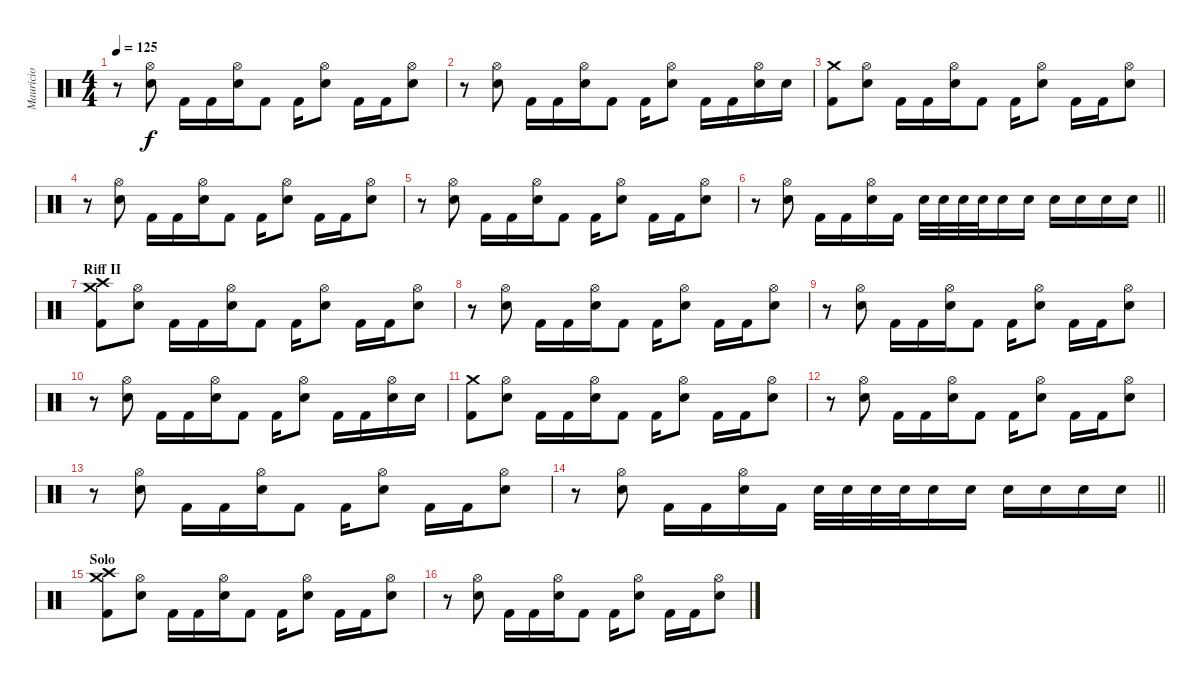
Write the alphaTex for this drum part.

\track ("Mauricio" "Mauricio") {instrument percussion}
\staff {score}
\articulation defaults
\ts (4 4)
\tempo 125
\clef neutral
\ks c
r.8{dy f} ("Hi-Hat (open)" "Electric Snare (hit)").8 "Kick (hit) 2".16 "Kick (hit) 2".16 ("Hi-Hat (open)" "Electric Snare (hit)").16 "Kick (hit) 2".8 "Kick (hit) 2".16 ("Hi-Hat (open)" "Electric Snare (hit)").8 "Kick (hit) 2".16 "Kick (hit) 2".16 ("Hi-Hat (open)" "Electric Snare (hit)").8 |
r.8 ("Hi-Hat (open)" "Electric Snare (hit)").8 "Kick (hit) 2".16 "Kick (hit) 2".16 ("Hi-Hat (open)" "Electric Snare (hit)").16 "Kick (hit) 2".8 "Kick (hit) 2".16 ("Hi-Hat (open)" "Electric Snare (hit)").8 "Kick (hit) 2".16 "Kick (hit) 2".16 ("Hi-Hat (open)" "Electric Snare (hit)").16 "Electric Snare (hit)".16 |
("Crash medium (hit)" "Kick (hit) 2").8 ("Hi-Hat (open)" "Electric Snare (hit)").8 "Kick (hit) 2".16 "Kick (hit) 2".16 ("Hi-Hat (open)" "Electric Snare (hit)").16 "Kick (hit) 2".8 "Kick (hit) 2".16 ("Hi-Hat (open)" "Electric Snare (hit)").8 "Kick (hit) 2".16 "Kick (hit) 2".16 ("Hi-Hat (open)" "Electric Snare (hit)").8 |
r.8 ("Hi-Hat (open)" "Electric Snare (hit)").8 "Kick (hit) 2".16 "Kick (hit) 2".16 ("Hi-Hat (open)" "Electric Snare (hit)").16 "Kick (hit) 2".8 "Kick (hit) 2".16 ("Hi-Hat (open)" "Electric Snare (hit)").8 "Kick (hit) 2".16 "Kick (hit) 2".16 ("Hi-Hat (open)" "Electric Snare (hit)").8 |
r.8 ("Hi-Hat (open)" "Electric Snare (hit)").8 "Kick (hit) 2".16 "Kick (hit) 2".16 ("Hi-Hat (open)" "Electric Snare (hit)").16 "Kick (hit) 2".8 "Kick (hit) 2".16 ("Hi-Hat (open)" "Electric Snare (hit)").8 "Kick (hit) 2".16 "Kick (hit) 2".16 ("Hi-Hat (open)" "Electric Snare (hit)").8 |
\barLineRight lightlight
r.8 ("Hi-Hat (open)" "Electric Snare (hit)").8 "Kick (hit) 2".16 "Kick (hit) 2".16 ("Hi-Hat (open)" "Electric Snare (hit)").16 "Kick (hit) 2".16 "Electric Snare (hit)".32 "Electric Snare (hit)".32 "Electric Snare (hit)".32 "Electric Snare (hit)".32 "Electric Snare (hit)".16 "Electric Snare (hit)".16 "Electric Snare (hit)".16 "Electric Snare (hit)".16 "Electric Snare (hit)".16 "Electric Snare (hit)".16 |
\section ("" "Riff II")
("Crash medium (hit)" "Crash high (hit)" "Kick (hit) 2").8 ("Hi-Hat (open)" "Electric Snare (hit)").8 "Kick (hit) 2".16 "Kick (hit) 2".16 ("Hi-Hat (open)" "Electric Snare (hit)").16 "Kick (hit) 2".8 "Kick (hit) 2".16 ("Hi-Hat (open)" "Electric Snare (hit)").8 "Kick (hit) 2".16 "Kick (hit) 2".16 ("Hi-Hat (open)" "Electric Snare (hit)").8 |
r.8 ("Hi-Hat (open)" "Electric Snare (hit)").8 "Kick (hit) 2".16 "Kick (hit) 2".16 ("Hi-Hat (open)" "Electric Snare (hit)").16 "Kick (hit) 2".8 "Kick (hit) 2".16 ("Hi-Hat (open)" "Electric Snare (hit)").8 "Kick (hit) 2".16 "Kick (hit) 2".16 ("Hi-Hat (open)" "Electric Snare (hit)").8 |
r.8 ("Hi-Hat (open)" "Electric Snare (hit)").8 "Kick (hit) 2".16 "Kick (hit) 2".16 ("Hi-Hat (open)" "Electric Snare (hit)").16 "Kick (hit) 2".8 "Kick (hit) 2".16 ("Hi-Hat (open)" "Electric Snare (hit)").8 "Kick (hit) 2".16 "Kick (hit) 2".16 ("Hi-Hat (open)" "Electric Snare (hit)").8 |
r.8 ("Hi-Hat (open)" "Electric Snare (hit)").8 "Kick (hit) 2".16 "Kick (hit) 2".16 ("Hi-Hat (open)" "Electric Snare (hit)").16 "Kick (hit) 2".8 "Kick (hit) 2".16 ("Hi-Hat (open)" "Electric Snare (hit)").8 "Kick (hit) 2".16 "Kick (hit) 2".16 ("Hi-Hat (open)" "Electric Snare (hit)").16 "Electric Snare (hit)".16 |
("Crash medium (hit)" "Kick (hit) 2").8 ("Hi-Hat (open)" "Electric Snare (hit)").8 "Kick (hit) 2".16 "Kick (hit) 2".16 ("Hi-Hat (open)" "Electric Snare (hit)").16 "Kick (hit) 2".8 "Kick (hit) 2".16 ("Hi-Hat (open)" "Electric Snare (hit)").8 "Kick (hit) 2".16 "Kick (hit) 2".16 ("Hi-Hat (open)" "Electric Snare (hit)").8 |
r.8 ("Hi-Hat (open)" "Electric Snare (hit)").8 "Kick (hit) 2".16 "Kick (hit) 2".16 ("Hi-Hat (open)" "Electric Snare (hit)").16 "Kick (hit) 2".8 "Kick (hit) 2".16 ("Hi-Hat (open)" "Electric Snare (hit)").8 "Kick (hit) 2".16 "Kick (hit) 2".16 ("Hi-Hat (open)" "Electric Snare (hit)").8 |
r.8 ("Hi-Hat (open)" "Electric Snare (hit)").8 "Kick (hit) 2".16 "Kick (hit) 2".16 ("Hi-Hat (open)" "Electric Snare (hit)").16 "Kick (hit) 2".8 "Kick (hit) 2".16 ("Hi-Hat (open)" "Electric Snare (hit)").8 "Kick (hit) 2".16 "Kick (hit) 2".16 ("Hi-Hat (open)" "Electric Snare (hit)").8 |
\barLineRight lightlight
r.8 ("Hi-Hat (open)" "Electric Snare (hit)").8 "Kick (hit) 2".16 "Kick (hit) 2".16 ("Hi-Hat (open)" "Electric Snare (hit)").16 "Kick (hit) 2".16 "Electric Snare (hit)".32 "Electric Snare (hit)".32 "Electric Snare (hit)".32 "Electric Snare (hit)".32 "Electric Snare (hit)".16 "Electric Snare (hit)".16 "Electric Snare (hit)".16 "Electric Snare (hit)".16 "Electric Snare (hit)".16 "Electric Snare (hit)".16 |
\section ("" "Solo")
("Crash medium (hit)" "Crash high (hit)" "Kick (hit) 2").8 ("Hi-Hat (open)" "Electric Snare (hit)").8 "Kick (hit) 2".16 "Kick (hit) 2".16 ("Hi-Hat (open)" "Electric Snare (hit)").16 "Kick (hit) 2".8 "Kick (hit) 2".16 ("Hi-Hat (open)" "Electric Snare (hit)").8 "Kick (hit) 2".16 "Kick (hit) 2".16 ("Hi-Hat (open)" "Electric Snare (hit)").8 |
r.8 ("Hi-Hat (open)" "Electric Snare (hit)").8 "Kick (hit) 2".16 "Kick (hit) 2".16 ("Hi-Hat (open)" "Electric Snare (hit)").16 "Kick (hit) 2".8 "Kick (hit) 2".16 ("Hi-Hat (open)" "Electric Snare (hit)").8 "Kick (hit) 2".16 "Kick (hit) 2".16 ("Hi-Hat (open)" "Electric Snare (hit)").8
